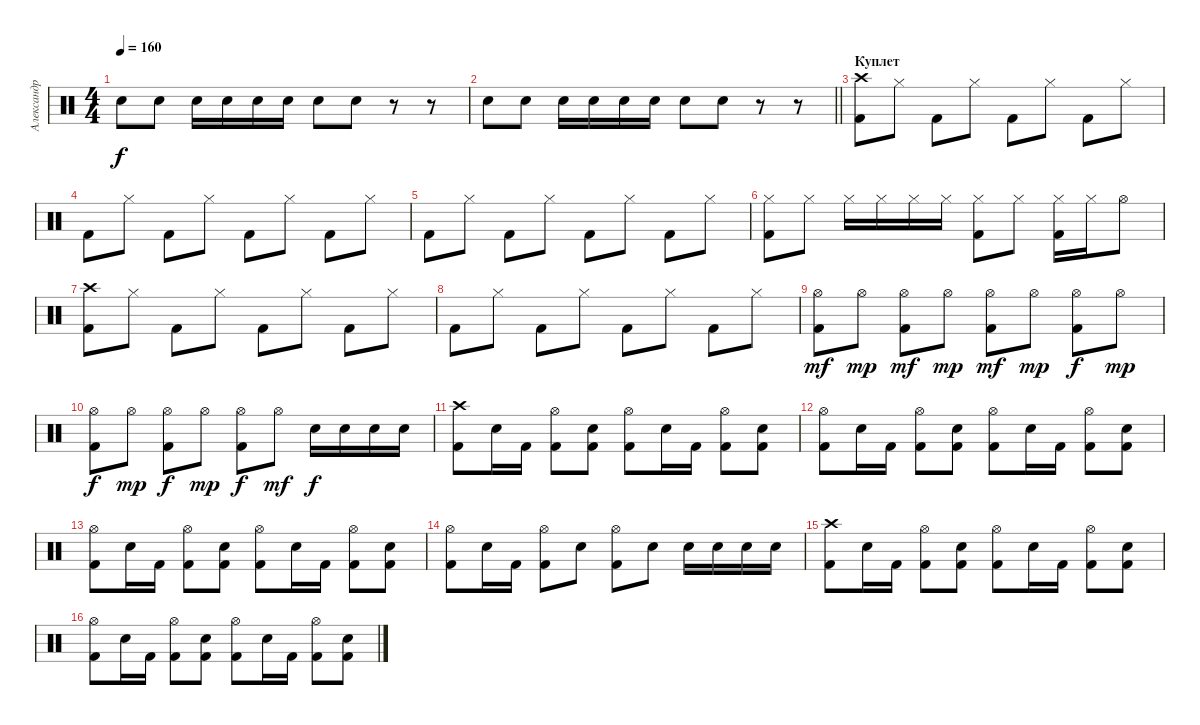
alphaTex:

\track ("Александр Карпухин" "Александр ") {instrument percussion}
\staff {score}
\articulation defaults
\ts (4 4)
\tempo 160
\clef neutral
\ks c "Electric Snare (hit)".8{dy f} "Electric Snare (hit)".8 "Electric Snare (hit)".16 "Electric Snare (hit)".16 "Electric Snare (hit)".16 "Electric Snare (hit)".16 "Electric Snare (hit)".8 "Electric Snare (hit)".8
r.8 r.8 |
\barLineRight lightlight "Electric Snare (hit)".8 "Electric Snare (hit)".8 "Electric Snare (hit)".16 "Electric Snare (hit)".16 "Electric Snare (hit)".16 "Electric Snare (hit)".16 "Electric Snare (hit)".8 "Electric Snare (hit)".8
r.8 r.8 |
\section ("" "Куплет")
("Crash high (hit)" "Kick (hit) 2").8 "Hi-Hat (closed)".8 "Kick (hit) 2".8 "Hi-Hat (closed)".8 "Kick (hit) 2".8 "Hi-Hat (closed)".8 "Kick (hit) 2".8 "Hi-Hat (closed)".8 |
"Kick (hit) 2".8 "Hi-Hat (closed)".8 "Kick (hit) 2".8 "Hi-Hat (closed)".8 "Kick (hit) 2".8 "Hi-Hat (closed)".8 "Kick (hit) 2".8 "Hi-Hat (closed)".8 |
"Kick (hit) 2".8 "Hi-Hat (closed)".8 "Kick (hit) 2".8 "Hi-Hat (closed)".8 "Kick (hit) 2".8 "Hi-Hat (closed)".8 "Kick (hit) 2".8 "Hi-Hat (closed)".8 |
("Hi-Hat (closed)" "Kick (hit) 2").8 "Hi-Hat (closed)".8 "Hi-Hat (closed)".16 "Hi-Hat (closed)".16 "Hi-Hat (closed)".16 "Hi-Hat (closed)".16 ("Hi-Hat (closed)" "Kick (hit) 2").8 "Hi-Hat (closed)".8 ("Hi-Hat (closed)" "Kick (hit) 2").16 "Hi-Hat (closed)".16 "Hi-Hat (open)".8 |
("Crash high (hit)" "Kick (hit) 2").8 "Hi-Hat (closed)".8 "Kick (hit) 2".8 "Hi-Hat (closed)".8 "Kick (hit) 2".8 "Hi-Hat (closed)".8 "Kick (hit) 2".8 "Hi-Hat (closed)".8 |
"Kick (hit) 2".8 "Hi-Hat (closed)".8 "Kick (hit) 2".8 "Hi-Hat (closed)".8 "Kick (hit) 2".8 "Hi-Hat (closed)".8 "Kick (hit) 2".8 "Hi-Hat (closed)".8 |
("Hi-Hat (open)" "Kick (hit) 2").8{dy mf} "Hi-Hat (open)".8{dy mp} ("Hi-Hat (open)" "Kick (hit) 2").8{dy mf} "Hi-Hat (open)".8{dy mp} ("Hi-Hat (open)" "Kick (hit) 2").8{dy mf} "Hi-Hat (open)".8{dy mp} ("Hi-Hat (open)" "Kick (hit) 2").8{dy f} "Hi-Hat (open)".8{dy mp} |
("Hi-Hat (open)" "Kick (hit) 2").8{dy f} "Hi-Hat (open)".8{dy mp} ("Hi-Hat (open)" "Kick (hit) 2").8{dy f} "Hi-Hat (open)".8{dy mp} ("Hi-Hat (open)" "Kick (hit) 2").8{dy f} "Hi-Hat (open)".8{dy mf} "Electric Snare (hit)".16{dy f} "Electric Snare (hit)".16 "Electric Snare (hit)".16 "Electric Snare (hit)".16 |
("Crash high (hit)" "Kick (hit) 2").8 "Electric Snare (hit)".16 "Kick (hit) 2".16 ("Hi-Hat (open)" "Kick (hit) 2").8 ("Electric Snare (hit)" "Kick (hit) 2").8 ("Hi-Hat (open)" "Kick (hit) 2").8 "Electric Snare (hit)".16 "Kick (hit) 2".16 ("Hi-Hat (open)" "Kick (hit) 2").8 ("Electric Snare (hit)" "Kick (hit) 2").8 |
("Hi-Hat (open)" "Kick (hit) 2").8 "Electric Snare (hit)".16 "Kick (hit) 2".16 ("Hi-Hat (open)" "Kick (hit) 2").8 ("Electric Snare (hit)" "Kick (hit) 2").8 ("Hi-Hat (open)" "Kick (hit) 2").8 "Electric Snare (hit)".16 "Kick (hit) 2".16 ("Hi-Hat (open)" "Kick (hit) 2").8 ("Electric Snare (hit)" "Kick (hit) 2").8 |
("Hi-Hat (open)" "Kick (hit) 2").8 "Electric Snare (hit)".16 "Kick (hit) 2".16 ("Hi-Hat (open)" "Kick (hit) 2").8 ("Electric Snare (hit)" "Kick (hit) 2").8 ("Hi-Hat (open)" "Kick (hit) 2").8 "Electric Snare (hit)".16 "Kick (hit) 2".16 ("Hi-Hat (open)" "Kick (hit) 2").8 ("Electric Snare (hit)" "Kick (hit) 2").8 |
("Hi-Hat (open)" "Kick (hit) 2").8 "Electric Snare (hit)".16 "Kick (hit) 2".16 ("Hi-Hat (open)" "Kick (hit) 2").8 "Electric Snare (hit)".8 ("Hi-Hat (open)" "Kick (hit) 2").8 "Electric Snare (hit)".8 "Electric Snare (hit)".16 "Electric Snare (hit)".16 "Electric Snare (hit)".16 "Electric Snare (hit)".16 |
("Crash high (hit)" "Kick (hit) 2").8 "Electric Snare (hit)".16 "Kick (hit) 2".16 ("Hi-Hat (open)" "Kick (hit) 2").8 ("Electric Snare (hit)" "Kick (hit) 2").8 ("Hi-Hat (open)" "Kick (hit) 2").8 "Electric Snare (hit)".16 "Kick (hit) 2".16 ("Hi-Hat (open)" "Kick (hit) 2").8 ("Electric Snare (hit)" "Kick (hit) 2").8 |
("Hi-Hat (open)" "Kick (hit) 2").8 "Electric Snare (hit)".16 "Kick (hit) 2".16 ("Hi-Hat (open)" "Kick (hit) 2").8 ("Electric Snare (hit)" "Kick (hit) 2").8 ("Hi-Hat (open)" "Kick (hit) 2").8 "Electric Snare (hit)".16 "Kick (hit) 2".16 ("Hi-Hat (open)" "Kick (hit) 2").8 ("Electric Snare (hit)" "Kick (hit) 2").8
